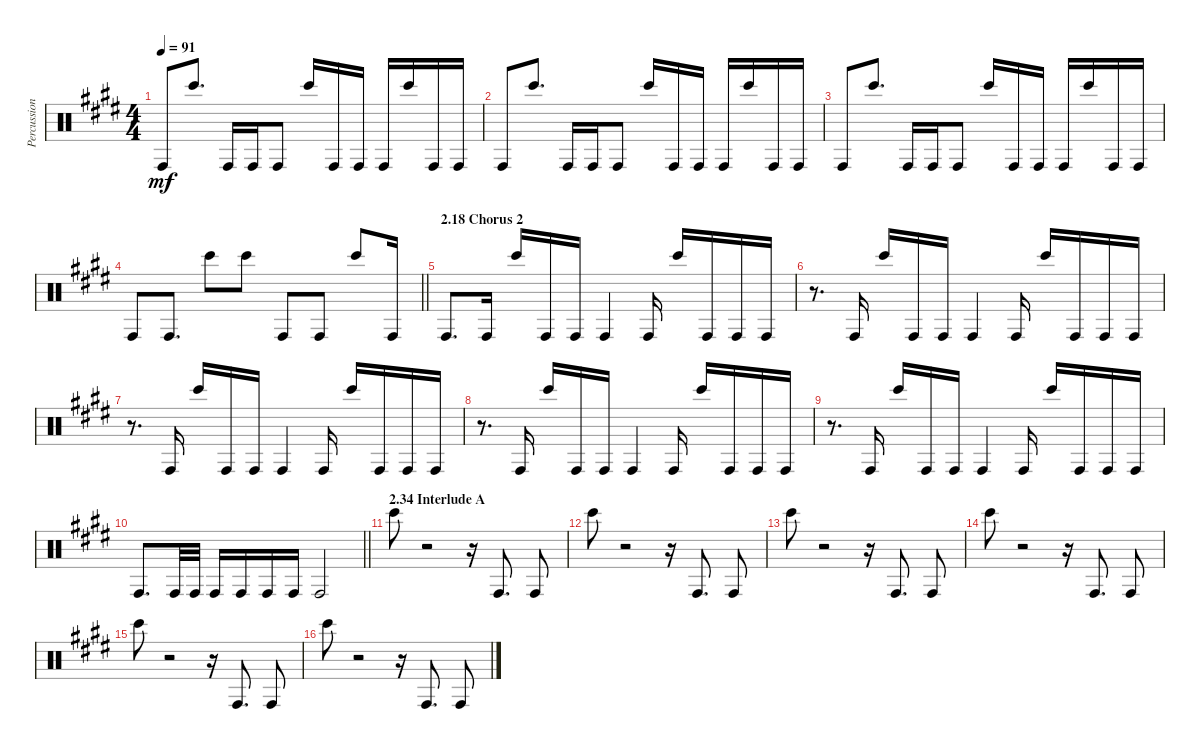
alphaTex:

\track ("Percussion" "Percussion") {instrument percussion}
\staff {score}
\articulation defaults
\ts (4 4)
\tempo 91
\clef neutral
\ks e "Conga high (hit)".8{dy mf} "Bongo High (hit)".8{d} "Conga high (hit)".16 "Conga high (hit)".16 "Conga high (hit)".8 "Bongo High (hit)".16 "Conga high (hit)".16 "Conga high (hit)".16 "Conga high (hit)".16 "Bongo High (hit)".16 "Conga high (hit)".16 "Conga high (hit)".16
|
"Conga high (hit)".8 "Bongo High (hit)".8{d} "Conga high (hit)".16 "Conga high (hit)".16 "Conga high (hit)".8 "Bongo High (hit)".16 "Conga high (hit)".16 "Conga high (hit)".16 "Conga high (hit)".16 "Bongo High (hit)".16 "Conga high (hit)".16 "Conga high (hit)".16 |
"Conga high (hit)".8 "Bongo High (hit)".8{d} "Conga high (hit)".16 "Conga high (hit)".16 "Conga high (hit)".8 "Bongo High (hit)".16 "Conga high (hit)".16 "Conga high (hit)".16 "Conga high (hit)".16 "Bongo High (hit)".16 "Conga high (hit)".16 "Conga high (hit)".16 |
\barLineRight lightlight "Conga high (hit)".8 "Conga high (hit)".8{d} "Bongo High (hit)".8 "Bongo High (hit)".8 "Conga high (hit)".8 "Conga high (hit)".8 "Bongo High (hit)".8 "Conga high (hit)".16
|
\section ("" "2.18 Chorus 2")
"Conga high (hit)".8{d} "Conga high (hit)".16 "Bongo High (hit)".16 "Conga high (hit)".16 "Conga high (hit)".16 "Conga high (hit)".4 "Conga high (hit)".16 "Bongo High (hit)".16 "Conga high (hit)".16 "Conga high (hit)".16 "Conga high (hit)".16 |
r.8{d} "Conga high (hit)".16 "Bongo High (hit)".16 "Conga high (hit)".16 "Conga high (hit)".16 "Conga high (hit)".4 "Conga high (hit)".16 "Bongo High (hit)".16 "Conga high (hit)".16 "Conga high (hit)".16 "Conga high (hit)".16 |
r.8{d} "Conga high (hit)".16 "Bongo High (hit)".16 "Conga high (hit)".16 "Conga high (hit)".16 "Conga high (hit)".4 "Conga high (hit)".16 "Bongo High (hit)".16 "Conga high (hit)".16 "Conga high (hit)".16 "Conga high (hit)".16 |
r.8{d} "Conga high (hit)".16 "Bongo High (hit)".16 "Conga high (hit)".16 "Conga high (hit)".16 "Conga high (hit)".4 "Conga high (hit)".16 "Bongo High (hit)".16 "Conga high (hit)".16 "Conga high (hit)".16 "Conga high (hit)".16 |
r.8{d} "Conga high (hit)".16 "Bongo High (hit)".16 "Conga high (hit)".16 "Conga high (hit)".16 "Conga high (hit)".4 "Conga high (hit)".16 "Bongo High (hit)".16 "Conga high (hit)".16 "Conga high (hit)".16 "Conga high (hit)".16 |
\barLineRight lightlight "Conga high (hit)".8{d} "Conga high (hit)".32 "Conga high (hit)".32 "Conga high (hit)".16 "Conga high (hit)".16 "Conga high (hit)".16 "Conga high (hit)".16 "Conga high (hit)".2
|
\section ("" "2.34 Interlude A")
"Bongo High (hit)".8 r.2 r.16 "Conga high (hit)".8{d} "Conga high (hit)".8 |
"Bongo High (hit)".8 r.2 r.16 "Conga high (hit)".8{d} "Conga high (hit)".8 |
"Bongo High (hit)".8 r.2 r.16 "Conga high (hit)".8{d} "Conga high (hit)".8 |
"Bongo High (hit)".8 r.2 r.16 "Conga high (hit)".8{d} "Conga high (hit)".8 |
"Bongo High (hit)".8 r.2 r.16 "Conga high (hit)".8{d} "Conga high (hit)".8 |
"Bongo High (hit)".8 r.2 r.16 "Conga high (hit)".8{d} "Conga high (hit)".8
